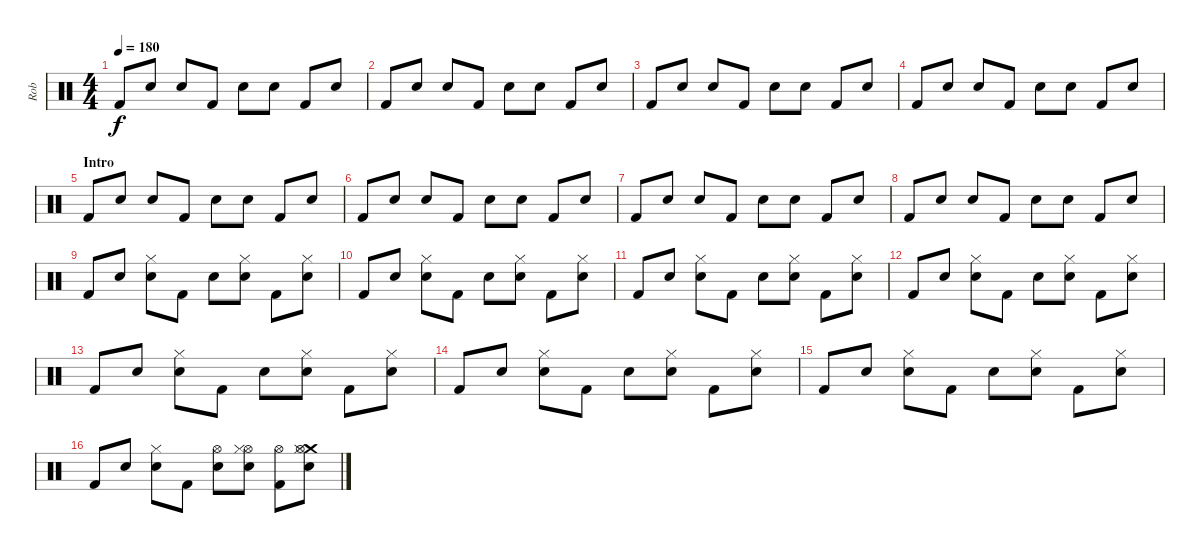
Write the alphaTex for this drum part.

\track ("Rob" "Rob") {instrument percussion}
\staff {score}
\articulation defaults
\ts (4 4)
\tempo 180
\clef neutral
\ks c "Kick (hit) 2".8{dy f} "Electric Snare (hit)".8 "Electric Snare (hit)".8 "Kick (hit) 2".8 "Electric Snare (hit)".8 "Electric Snare (hit)".8 "Kick (hit) 2".8 "Electric Snare (hit)".8
|
"Kick (hit) 2".8 "Electric Snare (hit)".8 "Electric Snare (hit)".8 "Kick (hit) 2".8 "Electric Snare (hit)".8 "Electric Snare (hit)".8 "Kick (hit) 2".8 "Electric Snare (hit)".8 |
"Kick (hit) 2".8 "Electric Snare (hit)".8 "Electric Snare (hit)".8 "Kick (hit) 2".8 "Electric Snare (hit)".8 "Electric Snare (hit)".8 "Kick (hit) 2".8 "Electric Snare (hit)".8 |
"Kick (hit) 2".8 "Electric Snare (hit)".8 "Electric Snare (hit)".8 "Kick (hit) 2".8 "Electric Snare (hit)".8 "Electric Snare (hit)".8 "Kick (hit) 2".8 "Electric Snare (hit)".8 |
\section ("" "Intro")
"Kick (hit) 2".8 "Electric Snare (hit)".8 "Electric Snare (hit)".8 "Kick (hit) 2".8 "Electric Snare (hit)".8 "Electric Snare (hit)".8 "Kick (hit) 2".8 "Electric Snare (hit)".8 |
"Kick (hit) 2".8 "Electric Snare (hit)".8 "Electric Snare (hit)".8 "Kick (hit) 2".8 "Electric Snare (hit)".8 "Electric Snare (hit)".8 "Kick (hit) 2".8 "Electric Snare (hit)".8 |
"Kick (hit) 2".8 "Electric Snare (hit)".8 "Electric Snare (hit)".8 "Kick (hit) 2".8 "Electric Snare (hit)".8 "Electric Snare (hit)".8 "Kick (hit) 2".8 "Electric Snare (hit)".8 |
"Kick (hit) 2".8 "Electric Snare (hit)".8 "Electric Snare (hit)".8 "Kick (hit) 2".8 "Electric Snare (hit)".8 "Electric Snare (hit)".8 "Kick (hit) 2".8 "Electric Snare (hit)".8 |
"Kick (hit) 2".8 "Electric Snare (hit)".8 ("Electric Snare (hit)" "Hi-Hat (closed)").8 "Kick (hit) 2".8 "Electric Snare (hit)".8 ("Electric Snare (hit)" "Hi-Hat (closed)").8 "Kick (hit) 2".8 ("Electric Snare (hit)" "Hi-Hat (closed)").8 |
"Kick (hit) 2".8 "Electric Snare (hit)".8 ("Electric Snare (hit)" "Hi-Hat (closed)").8 "Kick (hit) 2".8 "Electric Snare (hit)".8 ("Electric Snare (hit)" "Hi-Hat (closed)").8 "Kick (hit) 2".8 ("Electric Snare (hit)" "Hi-Hat (closed)").8 |
"Kick (hit) 2".8 "Electric Snare (hit)".8 ("Electric Snare (hit)" "Hi-Hat (closed)").8 "Kick (hit) 2".8 "Electric Snare (hit)".8 ("Electric Snare (hit)" "Hi-Hat (closed)").8 "Kick (hit) 2".8 ("Electric Snare (hit)" "Hi-Hat (closed)").8 |
"Kick (hit) 2".8 "Electric Snare (hit)".8 ("Electric Snare (hit)" "Hi-Hat (closed)").8 "Kick (hit) 2".8 "Electric Snare (hit)".8 ("Electric Snare (hit)" "Hi-Hat (closed)").8 "Kick (hit) 2".8 ("Electric Snare (hit)" "Hi-Hat (closed)").8 |
"Kick (hit) 2".8 "Electric Snare (hit)".8 ("Electric Snare (hit)" "Hi-Hat (closed)").8 "Kick (hit) 2".8 "Electric Snare (hit)".8 ("Electric Snare (hit)" "Hi-Hat (closed)").8 "Kick (hit) 2".8 ("Electric Snare (hit)" "Hi-Hat (closed)").8 |
"Kick (hit) 2".8 "Electric Snare (hit)".8 ("Electric Snare (hit)" "Hi-Hat (closed)").8 "Kick (hit) 2".8 "Electric Snare (hit)".8 ("Electric Snare (hit)" "Hi-Hat (closed)").8 "Kick (hit) 2".8 ("Electric Snare (hit)" "Hi-Hat (closed)").8 |
"Kick (hit) 2".8 "Electric Snare (hit)".8 ("Electric Snare (hit)" "Hi-Hat (closed)").8 "Kick (hit) 2".8 "Electric Snare (hit)".8 ("Electric Snare (hit)" "Hi-Hat (closed)").8 "Kick (hit) 2".8 ("Electric Snare (hit)" "Hi-Hat (closed)").8 |
"Kick (hit) 2".8 "Electric Snare (hit)".8 ("Electric Snare (hit)" "Hi-Hat (closed)").8 "Kick (hit) 2".8 ("Electric Snare (hit)" "Hi-Hat (open)").8 ("Electric Snare (hit)" "Hi-Hat (open)" "Hi-Hat (closed)").8 ("Kick (hit) 2" "Hi-Hat (open)").8 ("Crash medium (hit)" "Electric Snare (hit)" "Hi-Hat (open)" "Hi-Hat (closed)").8
